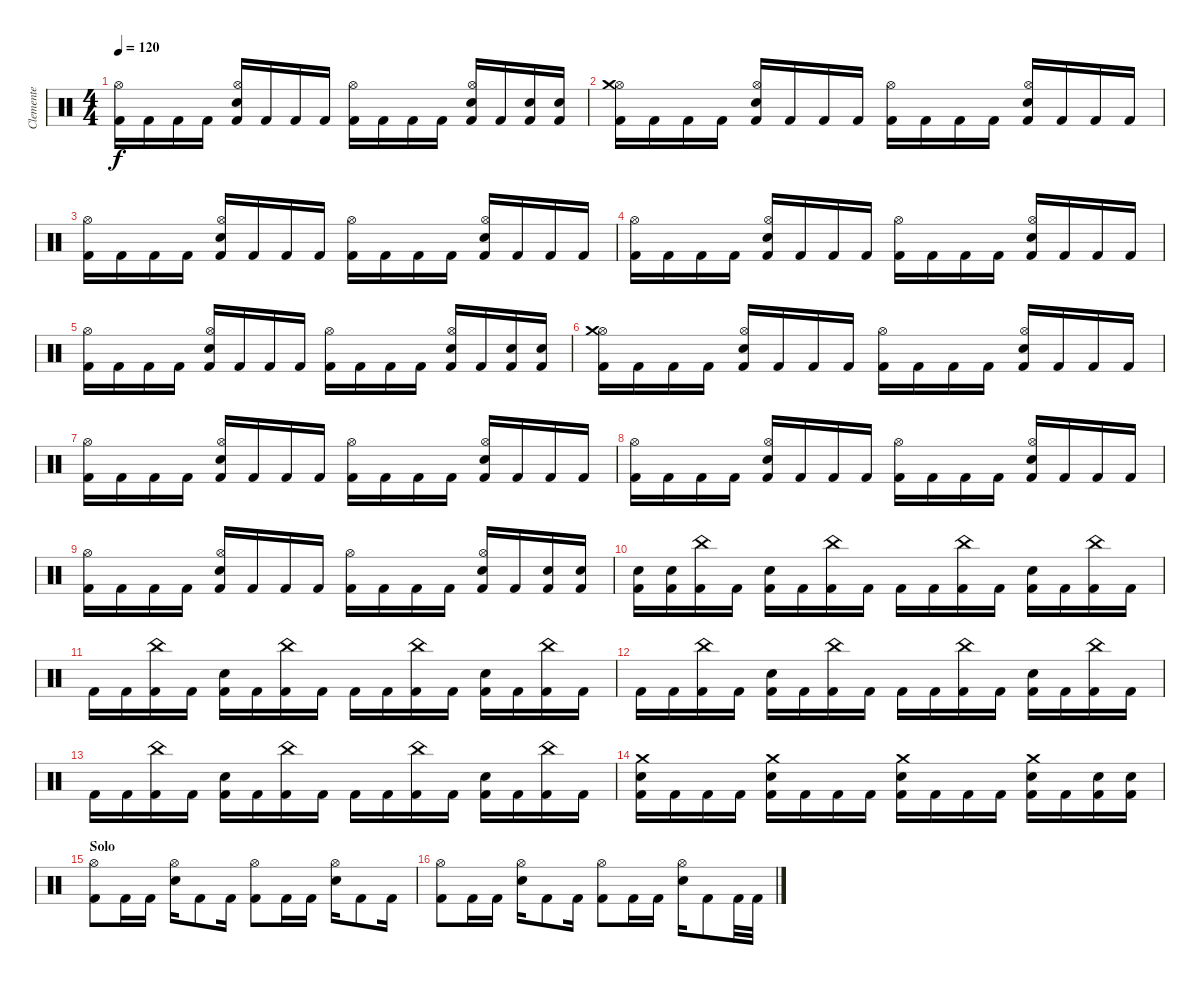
\track ("Clemente" "Clemente") {instrument percussion}
\staff {score}
\articulation defaults
\ts (4 4)
\tempo 120
\clef neutral
\ks c
("Kick (hit) 2" "Hi-Hat (open)").16{dy f} "Kick (hit) 2".16 "Kick (hit) 2".16 "Kick (hit) 2".16 ("Kick (hit) 2" "Electric Snare (hit)" "Hi-Hat (open)").16 "Kick (hit) 2".16 "Kick (hit) 2".16 "Kick (hit) 2".16 ("Kick (hit) 2" "Hi-Hat (open)").16 "Kick (hit) 2".16 "Kick (hit) 2".16 "Kick (hit) 2".16 ("Kick (hit) 2" "Electric Snare (hit)" "Hi-Hat (open)").16 "Kick (hit) 2".16 ("Kick (hit) 2" "Electric Snare (hit)").16 ("Kick (hit) 2" "Electric Snare (hit)").16 |
("Kick (hit) 2" "Hi-Hat (open)" "Crash medium (hit)").16 "Kick (hit) 2".16 "Kick (hit) 2".16 "Kick (hit) 2".16 ("Kick (hit) 2" "Electric Snare (hit)" "Hi-Hat (open)").16 "Kick (hit) 2".16 "Kick (hit) 2".16 "Kick (hit) 2".16 ("Kick (hit) 2" "Hi-Hat (open)").16 "Kick (hit) 2".16 "Kick (hit) 2".16 "Kick (hit) 2".16 ("Kick (hit) 2" "Electric Snare (hit)" "Hi-Hat (open)").16 "Kick (hit) 2".16 "Kick (hit) 2".16 "Kick (hit) 2".16 |
("Kick (hit) 2" "Hi-Hat (open)").16 "Kick (hit) 2".16 "Kick (hit) 2".16 "Kick (hit) 2".16 ("Kick (hit) 2" "Electric Snare (hit)" "Hi-Hat (open)").16 "Kick (hit) 2".16 "Kick (hit) 2".16 "Kick (hit) 2".16 ("Kick (hit) 2" "Hi-Hat (open)").16 "Kick (hit) 2".16 "Kick (hit) 2".16 "Kick (hit) 2".16 ("Kick (hit) 2" "Electric Snare (hit)" "Hi-Hat (open)").16 "Kick (hit) 2".16 "Kick (hit) 2".16 "Kick (hit) 2".16 |
("Kick (hit) 2" "Hi-Hat (open)").16 "Kick (hit) 2".16 "Kick (hit) 2".16 "Kick (hit) 2".16 ("Kick (hit) 2" "Electric Snare (hit)" "Hi-Hat (open)").16 "Kick (hit) 2".16 "Kick (hit) 2".16 "Kick (hit) 2".16 ("Kick (hit) 2" "Hi-Hat (open)").16 "Kick (hit) 2".16 "Kick (hit) 2".16 "Kick (hit) 2".16 ("Kick (hit) 2" "Electric Snare (hit)" "Hi-Hat (open)").16 "Kick (hit) 2".16 "Kick (hit) 2".16 "Kick (hit) 2".16 |
("Kick (hit) 2" "Hi-Hat (open)").16 "Kick (hit) 2".16 "Kick (hit) 2".16 "Kick (hit) 2".16 ("Kick (hit) 2" "Electric Snare (hit)" "Hi-Hat (open)").16 "Kick (hit) 2".16 "Kick (hit) 2".16 "Kick (hit) 2".16 ("Kick (hit) 2" "Hi-Hat (open)").16 "Kick (hit) 2".16 "Kick (hit) 2".16 "Kick (hit) 2".16 ("Kick (hit) 2" "Electric Snare (hit)" "Hi-Hat (open)").16 "Kick (hit) 2".16 ("Kick (hit) 2" "Electric Snare (hit)").16 ("Kick (hit) 2" "Electric Snare (hit)").16 |
("Kick (hit) 2" "Hi-Hat (open)" "Crash medium (hit)").16 "Kick (hit) 2".16 "Kick (hit) 2".16 "Kick (hit) 2".16 ("Kick (hit) 2" "Electric Snare (hit)" "Hi-Hat (open)").16 "Kick (hit) 2".16 "Kick (hit) 2".16 "Kick (hit) 2".16 ("Kick (hit) 2" "Hi-Hat (open)").16 "Kick (hit) 2".16 "Kick (hit) 2".16 "Kick (hit) 2".16 ("Kick (hit) 2" "Electric Snare (hit)" "Hi-Hat (open)").16 "Kick (hit) 2".16 "Kick (hit) 2".16 "Kick (hit) 2".16 |
("Kick (hit) 2" "Hi-Hat (open)").16 "Kick (hit) 2".16 "Kick (hit) 2".16 "Kick (hit) 2".16 ("Kick (hit) 2" "Electric Snare (hit)" "Hi-Hat (open)").16 "Kick (hit) 2".16 "Kick (hit) 2".16 "Kick (hit) 2".16 ("Kick (hit) 2" "Hi-Hat (open)").16 "Kick (hit) 2".16 "Kick (hit) 2".16 "Kick (hit) 2".16 ("Kick (hit) 2" "Electric Snare (hit)" "Hi-Hat (open)").16 "Kick (hit) 2".16 "Kick (hit) 2".16 "Kick (hit) 2".16 |
("Kick (hit) 2" "Hi-Hat (open)").16 "Kick (hit) 2".16 "Kick (hit) 2".16 "Kick (hit) 2".16 ("Kick (hit) 2" "Electric Snare (hit)" "Hi-Hat (open)").16 "Kick (hit) 2".16 "Kick (hit) 2".16 "Kick (hit) 2".16 ("Kick (hit) 2" "Hi-Hat (open)").16 "Kick (hit) 2".16 "Kick (hit) 2".16 "Kick (hit) 2".16 ("Kick (hit) 2" "Electric Snare (hit)" "Hi-Hat (open)").16 "Kick (hit) 2".16 "Kick (hit) 2".16 "Kick (hit) 2".16 |
("Kick (hit) 2" "Hi-Hat (open)").16 "Kick (hit) 2".16 "Kick (hit) 2".16 "Kick (hit) 2".16 ("Kick (hit) 2" "Electric Snare (hit)" "Hi-Hat (open)").16 "Kick (hit) 2".16 "Kick (hit) 2".16 "Kick (hit) 2".16 ("Kick (hit) 2" "Hi-Hat (open)").16 "Kick (hit) 2".16 "Kick (hit) 2".16 "Kick (hit) 2".16 ("Kick (hit) 2" "Electric Snare (hit)" "Hi-Hat (open)").16 "Kick (hit) 2".16 ("Kick (hit) 2" "Electric Snare (hit)").16 ("Kick (hit) 2" "Electric Snare (hit)").16 |
("Kick (hit) 2" "Electric Snare (hit)").16 ("Kick (hit) 2" "Electric Snare (hit)").16 ("Kick (hit) 2" "China (hit)").16 "Kick (hit) 2".16 ("Kick (hit) 2" "Electric Snare (hit)").16 "Kick (hit) 2".16 ("Kick (hit) 2" "China (hit)").16 "Kick (hit) 2".16 "Kick (hit) 2".16 "Kick (hit) 2".16 ("Kick (hit) 2" "China (hit)").16 "Kick (hit) 2".16 ("Kick (hit) 2" "Electric Snare (hit)").16 "Kick (hit) 2".16 ("Kick (hit) 2" "China (hit)").16 "Kick (hit) 2".16 |
"Kick (hit) 2".16 "Kick (hit) 2".16 ("Kick (hit) 2" "China (hit)").16 "Kick (hit) 2".16 ("Kick (hit) 2" "Electric Snare (hit)").16 "Kick (hit) 2".16 ("Kick (hit) 2" "China (hit)").16 "Kick (hit) 2".16 "Kick (hit) 2".16 "Kick (hit) 2".16 ("Kick (hit) 2" "China (hit)").16 "Kick (hit) 2".16 ("Kick (hit) 2" "Electric Snare (hit)").16 "Kick (hit) 2".16 ("Kick (hit) 2" "China (hit)").16 "Kick (hit) 2".16 |
"Kick (hit) 2".16 "Kick (hit) 2".16 ("Kick (hit) 2" "China (hit)").16 "Kick (hit) 2".16 ("Kick (hit) 2" "Electric Snare (hit)").16 "Kick (hit) 2".16 ("Kick (hit) 2" "China (hit)").16 "Kick (hit) 2".16 "Kick (hit) 2".16 "Kick (hit) 2".16 ("Kick (hit) 2" "China (hit)").16 "Kick (hit) 2".16 ("Kick (hit) 2" "Electric Snare (hit)").16 "Kick (hit) 2".16 ("Kick (hit) 2" "China (hit)").16 "Kick (hit) 2".16 |
"Kick (hit) 2".16 "Kick (hit) 2".16 ("Kick (hit) 2" "China (hit)").16 "Kick (hit) 2".16 ("Kick (hit) 2" "Electric Snare (hit)").16 "Kick (hit) 2".16 ("Kick (hit) 2" "China (hit)").16 "Kick (hit) 2".16 "Kick (hit) 2".16 "Kick (hit) 2".16 ("Kick (hit) 2" "China (hit)").16 "Kick (hit) 2".16 ("Kick (hit) 2" "Electric Snare (hit)").16 "Kick (hit) 2".16 ("Kick (hit) 2" "China (hit)").16 "Kick (hit) 2".16 |
("Kick (hit) 2" "Electric Snare (hit)" "Crash medium (hit)").16 "Kick (hit) 2".16 "Kick (hit) 2".16 "Kick (hit) 2".16 ("Kick (hit) 2" "Electric Snare (hit)" "Crash medium (hit)").16 "Kick (hit) 2".16 "Kick (hit) 2".16 "Kick (hit) 2".16 ("Kick (hit) 2" "Electric Snare (hit)" "Crash medium (hit)").16 "Kick (hit) 2".16 "Kick (hit) 2".16 "Kick (hit) 2".16 ("Kick (hit) 2" "Electric Snare (hit)" "Crash medium (hit)").16 "Kick (hit) 2".16 ("Kick (hit) 2" "Electric Snare (hit)").16 ("Kick (hit) 2" "Electric Snare (hit)").16 |
\section ("" "Solo")
("Kick (hit) 2" "Hi-Hat (open)").8 "Kick (hit) 2".16 "Kick (hit) 2".16 ("Electric Snare (hit)" "Hi-Hat (open)").16 "Kick (hit) 2".8 "Kick (hit) 2".16 ("Kick (hit) 2" "Hi-Hat (open)").8 "Kick (hit) 2".16 "Kick (hit) 2".16 ("Electric Snare (hit)" "Hi-Hat (open)").16 "Kick (hit) 2".8 "Kick (hit) 2".16 |
("Kick (hit) 2" "Hi-Hat (open)").8 "Kick (hit) 2".16 "Kick (hit) 2".16 ("Electric Snare (hit)" "Hi-Hat (open)").16 "Kick (hit) 2".8 "Kick (hit) 2".16 ("Kick (hit) 2" "Hi-Hat (open)").8 "Kick (hit) 2".16 "Kick (hit) 2".16 ("Electric Snare (hit)" "Hi-Hat (open)").16 "Kick (hit) 2".8 "Kick (hit) 2".32 "Kick (hit) 2".32
